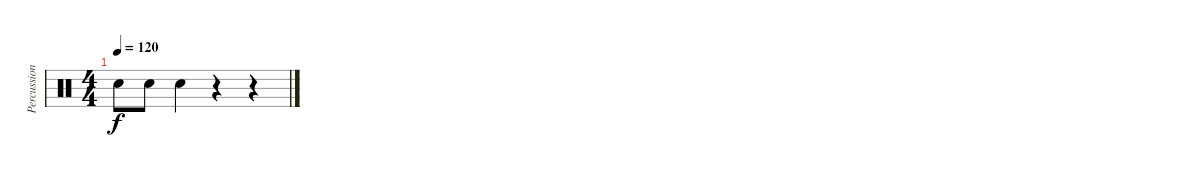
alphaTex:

\track ("Percussions" "Percussion") {instrument percussion}
\staff {score}
\articulation defaults
\ts (4 4)
\tempo 120
\clef neutral
\ks c "Snare (hit) 2".8{dy f} "Snare (hit) 2".8 "Snare (hit) 2".4
r.4 r.4
